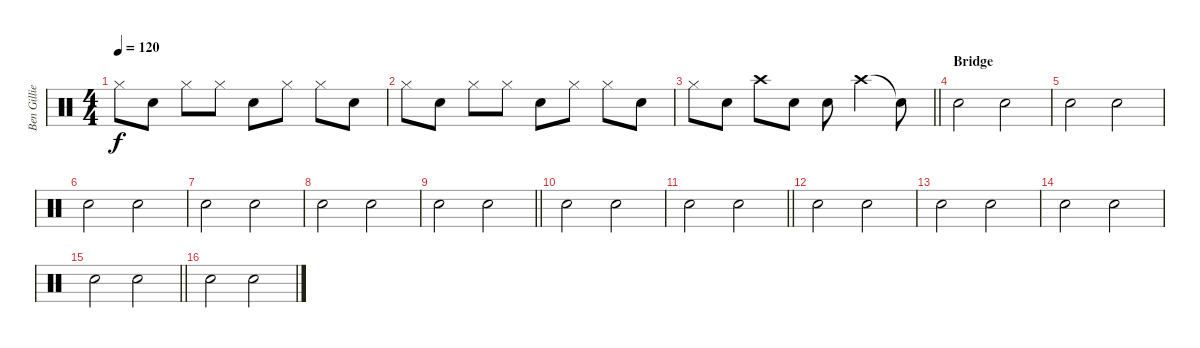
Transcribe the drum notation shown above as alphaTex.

\track ("Ben Gillies(drums)" "Ben Gillie") {instrument percussion}
\staff {score}
\articulation defaults
\ts (4 4)
\tempo 120
\clef neutral
\ks c "Hi-Hat (closed)".8{dy f} "Electric Snare (hit)".8 "Hi-Hat (closed)".8 "Hi-Hat (closed)".8 "Electric Snare (hit)".8 "Hi-Hat (closed)".8 "Hi-Hat (closed)".8 "Electric Snare (hit)".8
|
"Hi-Hat (closed)".8 "Electric Snare (hit)".8 "Hi-Hat (closed)".8 "Hi-Hat (closed)".8 "Electric Snare (hit)".8 "Hi-Hat (closed)".8 "Hi-Hat (closed)".8 "Electric Snare (hit)".8 |
\barLineRight lightlight "Hi-Hat (closed)".8 "Electric Snare (hit)".8 "Crash high (hit)".8 "Electric Snare (hit)".8 "Electric Snare (hit)".8 "Crash high (hit)".4 "Snare (hit)"{t}.8
|
\section ("" "Bridge")
"Electric Snare (hit)".2 "Electric Snare (hit)".2 |
"Electric Snare (hit)".2 "Electric Snare (hit)".2 |
"Electric Snare (hit)".2 "Electric Snare (hit)".2 |
"Electric Snare (hit)".2 "Electric Snare (hit)".2 |
"Electric Snare (hit)".2 "Electric Snare (hit)".2 |
\barLineRight lightlight "Electric Snare (hit)".2 "Electric Snare (hit)".2
|
"Electric Snare (hit)".2 "Electric Snare (hit)".2 |
\barLineRight lightlight "Electric Snare (hit)".2 "Electric Snare (hit)".2
|
\section ("" "")
"Electric Snare (hit)".2 "Electric Snare (hit)".2 |
"Electric Snare (hit)".2 "Electric Snare (hit)".2 |
"Electric Snare (hit)".2 "Electric Snare (hit)".2 |
\barLineRight lightlight "Electric Snare (hit)".2 "Electric Snare (hit)".2
|
"Electric Snare (hit)".2 "Electric Snare (hit)".2
